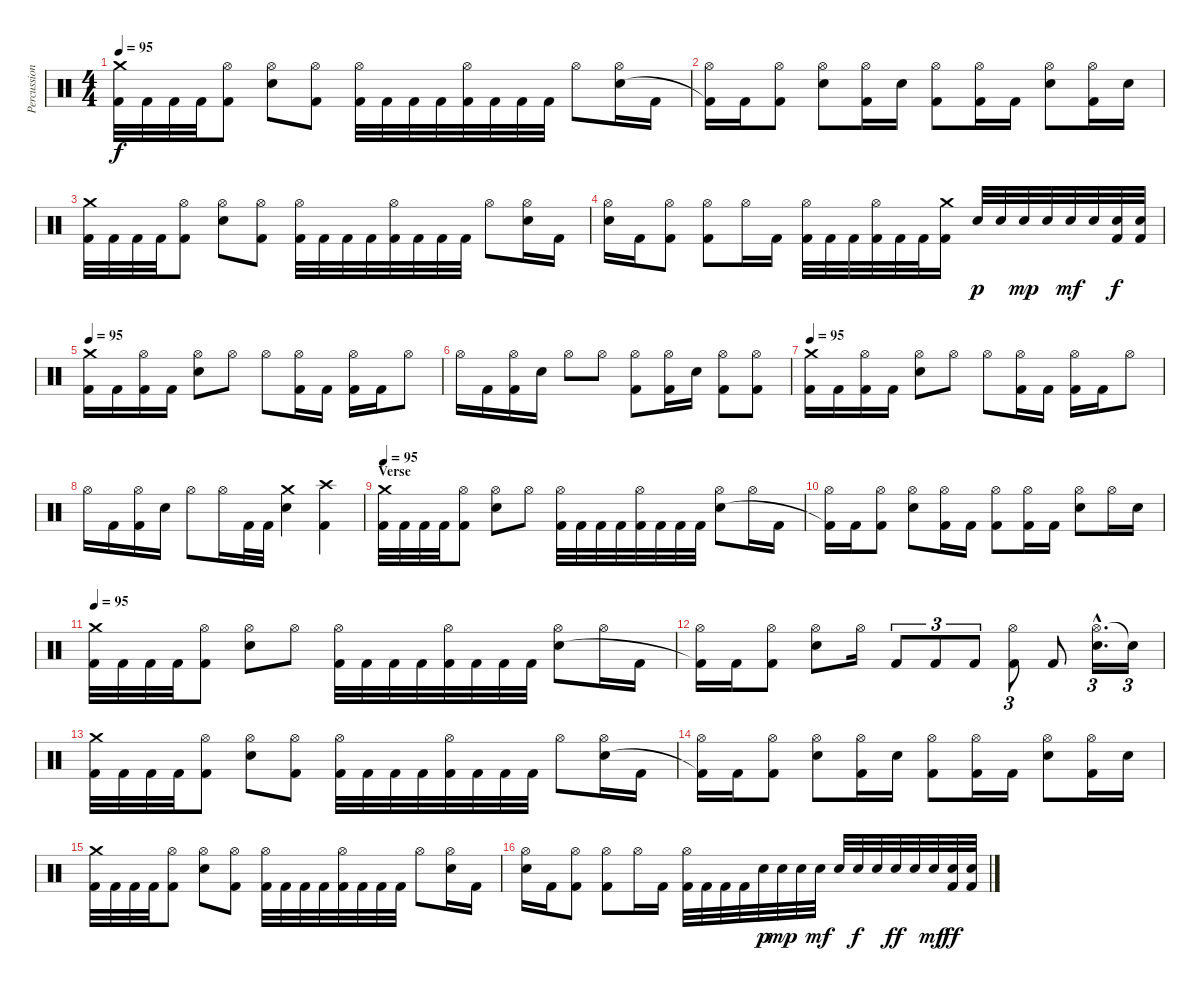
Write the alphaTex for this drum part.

\track ("Percussions" "Percussion") {instrument percussion}
\staff {score}
\articulation defaults
\ts (4 4)
\tempo 95
\clef neutral
\ks c
("Crash medium (hit)" "Kick (hit) 2").32{dy f} "Kick (hit) 2".32 "Kick (hit) 2".32 "Kick (hit) 2".32 ("Hi-Hat (open)" "Kick (hit) 2").8 ("Hi-Hat (open)" "Electric Snare (hit)").8 ("Hi-Hat (open)" "Kick (hit) 2").8 ("Hi-Hat (open)" "Kick (hit) 2").32 "Kick (hit) 2".32 "Kick (hit) 2".32 "Kick (hit) 2".32 ("Hi-Hat (open)" "Kick (hit) 2").32 "Kick (hit) 2".32 "Kick (hit) 2".32 "Kick (hit) 2".32 "Hi-Hat (open)".8 ("Hi-Hat (open)" "Electric Snare (hit)").16 "Kick (hit) 2".16 |
("Hi-Hat (open)" "Kick (hit) 2"{t}).16 "Kick (hit) 2".16 ("Hi-Hat (open)" "Kick (hit) 2").8 ("Hi-Hat (open)" "Electric Snare (hit)").8 ("Hi-Hat (open)" "Kick (hit) 2").16 "Electric Snare (hit)".16 ("Hi-Hat (open)" "Kick (hit) 2").8 ("Hi-Hat (open)" "Kick (hit) 2").16 "Kick (hit) 2".16 ("Hi-Hat (open)" "Electric Snare (hit)").8 ("Hi-Hat (open)" "Kick (hit) 2").16 "Electric Snare (hit)".16 |
("Crash medium (hit)" "Kick (hit) 2").32 "Kick (hit) 2".32 "Kick (hit) 2".32 "Kick (hit) 2".32 ("Hi-Hat (open)" "Kick (hit) 2").8 ("Hi-Hat (open)" "Electric Snare (hit)").8 ("Hi-Hat (open)" "Kick (hit) 2").8 ("Hi-Hat (open)" "Kick (hit) 2").32 "Kick (hit) 2".32 "Kick (hit) 2".32 "Kick (hit) 2".32 ("Hi-Hat (open)" "Kick (hit) 2").32 "Kick (hit) 2".32 "Kick (hit) 2".32 "Kick (hit) 2".32 "Hi-Hat (open)".8 ("Hi-Hat (open)" "Electric Snare (hit)").16 "Kick (hit) 2".16 |
("Hi-Hat (open)" "Electric Snare (hit)").16 "Kick (hit) 2".16 ("Hi-Hat (open)" "Kick (hit) 2").8 ("Hi-Hat (open)" "Kick (hit) 2").8 "Hi-Hat (open)".16 "Kick (hit) 2".16 ("Hi-Hat (open)" "Kick (hit) 2").32 "Kick (hit) 2".32 "Kick (hit) 2".32 ("Hi-Hat (open)" "Kick (hit) 2").32 "Kick (hit) 2".32 "Kick (hit) 2".32 ("Crash medium (hit)" "Kick (hit) 2").16 "Electric Snare (hit)".32{dy p} "Electric Snare (hit)".32 "Electric Snare (hit)".32{dy mp} "Electric Snare (hit)".32 "Electric Snare (hit)".32{dy mf} "Electric Snare (hit)".32 ("Electric Snare (hit)" "Kick (hit) 2").32{dy f} ("Electric Snare (hit)" "Kick (hit) 2").32 |
\tempo 95
("Crash medium (hit)" "Kick (hit) 2").16 "Kick (hit) 2".16 ("Hi-Hat (open)" "Kick (hit) 2").16 "Kick (hit) 2".16 ("Hi-Hat (open)" "Electric Snare (hit)").8 "Hi-Hat (open)".8 "Hi-Hat (open)".8 ("Hi-Hat (open)" "Kick (hit) 2").16 "Kick (hit) 2".16 ("Hi-Hat (open)" "Kick (hit) 2").16 "Kick (hit) 2".16 "Hi-Hat (open)".8 |
"Hi-Hat (open)".16 "Kick (hit) 2".16 ("Hi-Hat (open)" "Kick (hit) 2").16 "Electric Snare (hit)".16 "Hi-Hat (open)".8 "Hi-Hat (open)".8 ("Hi-Hat (open)" "Kick (hit) 2").8 ("Hi-Hat (open)" "Kick (hit) 2").16 "Electric Snare (hit)".16 ("Hi-Hat (open)" "Kick (hit) 2").8 ("Hi-Hat (open)" "Kick (hit) 2").8 |
\tempo 95
("Crash medium (hit)" "Kick (hit) 2").16 "Kick (hit) 2".16 ("Hi-Hat (open)" "Kick (hit) 2").16 "Kick (hit) 2".16 ("Hi-Hat (open)" "Electric Snare (hit)").8 "Hi-Hat (open)".8 "Hi-Hat (open)".8 ("Hi-Hat (open)" "Kick (hit) 2").16 "Kick (hit) 2".16 ("Hi-Hat (open)" "Kick (hit) 2").16 "Kick (hit) 2".16 "Hi-Hat (open)".8 |
"Hi-Hat (open)".16 "Kick (hit) 2".16 ("Hi-Hat (open)" "Kick (hit) 2").16 "Electric Snare (hit)".16 "Hi-Hat (open)".8 "Hi-Hat (open)".16 "Kick (hit) 2".32 "Kick (hit) 2".32 ("Crash medium (hit)" "Electric Snare (hit)").4 ("Crash high (hit)" "Kick (hit) 2").4 |
\section ("" "Verse")
\tempo 95
("Crash medium (hit)" "Kick (hit) 2").32 "Kick (hit) 2".32 "Kick (hit) 2".32 "Kick (hit) 2".32 ("Hi-Hat (open)" "Kick (hit) 2").8 ("Hi-Hat (open)" "Electric Snare (hit)").8 "Hi-Hat (open)".8 ("Hi-Hat (open)" "Kick (hit) 2").32 "Kick (hit) 2".32 "Kick (hit) 2".32 "Kick (hit) 2".32 ("Hi-Hat (open)" "Kick (hit) 2").32 "Kick (hit) 2".32 "Kick (hit) 2".32 "Kick (hit) 2".32 ("Hi-Hat (open)" "Electric Snare (hit)").8 "Hi-Hat (open)".16 "Kick (hit) 2".16 |
("Hi-Hat (open)" "Kick (hit) 2"{t}).16 "Kick (hit) 2".16 ("Hi-Hat (open)" "Kick (hit) 2").8 ("Hi-Hat (open)" "Electric Snare (hit)").8 ("Hi-Hat (open)" "Kick (hit) 2").16 "Kick (hit) 2".16 ("Hi-Hat (open)" "Kick (hit) 2").8 ("Hi-Hat (open)" "Kick (hit) 2").16 "Kick (hit) 2".16 ("Hi-Hat (open)" "Electric Snare (hit)").8 "Hi-Hat (open)".16 "Electric Snare (hit)".16 |
\tempo 95
("Crash medium (hit)" "Kick (hit) 2").32 "Kick (hit) 2".32 "Kick (hit) 2".32 "Kick (hit) 2".32 ("Hi-Hat (open)" "Kick (hit) 2").8 ("Hi-Hat (open)" "Electric Snare (hit)").8 "Hi-Hat (open)".8 ("Hi-Hat (open)" "Kick (hit) 2").32 "Kick (hit) 2".32 "Kick (hit) 2".32 "Kick (hit) 2".32 ("Hi-Hat (open)" "Kick (hit) 2").32 "Kick (hit) 2".32 "Kick (hit) 2".32 "Kick (hit) 2".32 ("Hi-Hat (open)" "Electric Snare (hit)").8 "Hi-Hat (open)".16 "Kick (hit) 2".16 |
("Hi-Hat (open)" "Kick (hit) 2"{t}).16 "Kick (hit) 2".16 ("Hi-Hat (open)" "Kick (hit) 2").8 ("Hi-Hat (open)" "Electric Snare (hit)").8 "Hi-Hat (open)".16 "Kick (hit) 2".8{tu (3 2)} "Kick (hit) 2".8{tu (3 2)} "Kick (hit) 2".8{tu (3 2)} ("Hi-Hat (open)" "Kick (hit) 2").8{tu (3 2)} "Kick (hit) 2".8 ("Hi-Hat (open)"{hac} "Electric Snare (hit)"{hac}).16{d tu (3 2)} "Electric Snare (hit)"{t}.16{tu (3 2)} |
("Crash medium (hit)" "Kick (hit) 2").32 "Kick (hit) 2".32 "Kick (hit) 2".32 "Kick (hit) 2".32 ("Hi-Hat (open)" "Kick (hit) 2").8 ("Hi-Hat (open)" "Electric Snare (hit)").8 ("Hi-Hat (open)" "Kick (hit) 2").8 ("Hi-Hat (open)" "Kick (hit) 2").32 "Kick (hit) 2".32 "Kick (hit) 2".32 "Kick (hit) 2".32 ("Hi-Hat (open)" "Kick (hit) 2").32 "Kick (hit) 2".32 "Kick (hit) 2".32 "Kick (hit) 2".32 "Hi-Hat (open)".8 ("Hi-Hat (open)" "Electric Snare (hit)").16 "Kick (hit) 2".16 |
("Hi-Hat (open)" "Kick (hit) 2"{t}).16 "Kick (hit) 2".16 ("Hi-Hat (open)" "Kick (hit) 2").8 ("Hi-Hat (open)" "Electric Snare (hit)").8 ("Hi-Hat (open)" "Kick (hit) 2").16 "Electric Snare (hit)".16 ("Hi-Hat (open)" "Kick (hit) 2").8 ("Hi-Hat (open)" "Kick (hit) 2").16 "Kick (hit) 2".16 ("Hi-Hat (open)" "Electric Snare (hit)").8 ("Hi-Hat (open)" "Kick (hit) 2").16 "Electric Snare (hit)".16 |
("Crash medium (hit)" "Kick (hit) 2").32 "Kick (hit) 2".32 "Kick (hit) 2".32 "Kick (hit) 2".32 ("Hi-Hat (open)" "Kick (hit) 2").8 ("Hi-Hat (open)" "Electric Snare (hit)").8 ("Hi-Hat (open)" "Kick (hit) 2").8 ("Hi-Hat (open)" "Kick (hit) 2").32 "Kick (hit) 2".32 "Kick (hit) 2".32 "Kick (hit) 2".32 ("Hi-Hat (open)" "Kick (hit) 2").32 "Kick (hit) 2".32 "Kick (hit) 2".32 "Kick (hit) 2".32 "Hi-Hat (open)".8 ("Hi-Hat (open)" "Electric Snare (hit)").16 "Kick (hit) 2".16 |
("Hi-Hat (open)" "Electric Snare (hit)").16 "Kick (hit) 2".16 ("Hi-Hat (open)" "Kick (hit) 2").8 ("Hi-Hat (open)" "Kick (hit) 2").8 "Hi-Hat (open)".16 "Kick (hit) 2".16 ("Hi-Hat (open)" "Kick (hit) 2").32 "Kick (hit) 2".32 "Kick (hit) 2".32 "Kick (hit) 2".32 "Electric Snare (hit)".32{dy p} "Electric Snare (hit)".32{dy mp} "Electric Snare (hit)".32 "Electric Snare (hit)".32{dy mf} "Electric Snare (hit)".32 "Electric Snare (hit)".32{dy f} "Electric Snare (hit)".32 "Electric Snare (hit)".32{dy ff} "Electric Snare (hit)".32 "Electric Snare (hit)".32{dy mf} ("Electric Snare (hit)" "Kick (hit) 2").32{dy ff} ("Electric Snare (hit)" "Kick (hit) 2").32
